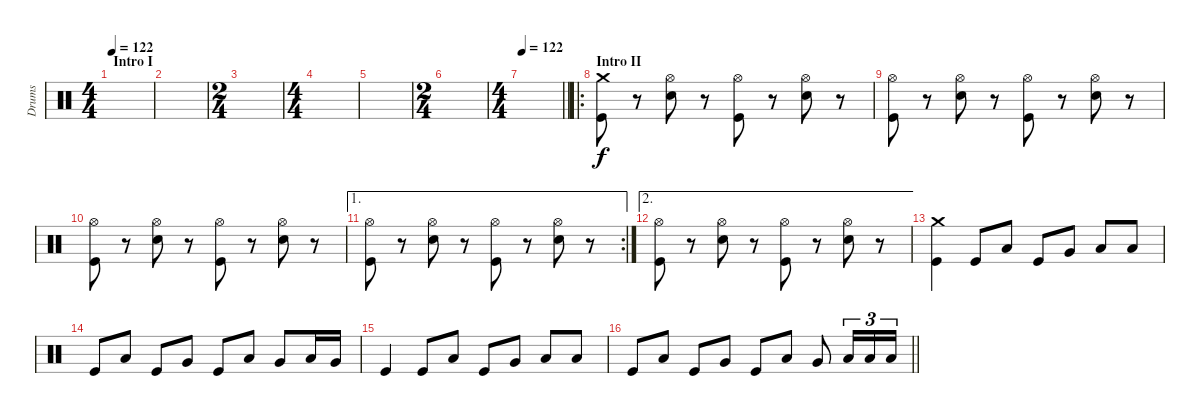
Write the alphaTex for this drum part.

\track ("Drums" "Drums") {instrument percussion}
\staff {score}
\articulation defaults
\ts (4 4)
\section ("" "Intro I")
\tempo 122
\tempo 90
\tempo 122
\clef neutral
\ks c
|
|
\ts (2 4)
|
\ts (4 4)
|
|
\ts (2 4)
|
\ts (4 4)
\tempo 122
\barLineRight lightlight
|
\ro
\section ("" "Intro II")
("Crash medium (hit)" "Kick (hit)").8 r.8 ("Hi-Hat (open)" "Electric Snare (hit)").8 r.8 ("Hi-Hat (open)" "Kick (hit)").8 r.8 ("Hi-Hat (open)" "Electric Snare (hit)").8 r.8 |
("Hi-Hat (open)" "Kick (hit)").8 r.8 ("Hi-Hat (open)" "Electric Snare (hit)").8 r.8 ("Hi-Hat (open)" "Kick (hit)").8 r.8 ("Hi-Hat (open)" "Electric Snare (hit)").8 r.8 |
("Hi-Hat (open)" "Kick (hit)").8 r.8 ("Hi-Hat (open)" "Electric Snare (hit)").8 r.8 ("Hi-Hat (open)" "Kick (hit)").8 r.8 ("Hi-Hat (open)" "Electric Snare (hit)").8 r.8 |
\ae 1
\rc 2
("Hi-Hat (open)" "Kick (hit)").8 r.8 ("Hi-Hat (open)" "Electric Snare (hit)").8 r.8 ("Hi-Hat (open)" "Kick (hit)").8 r.8 ("Hi-Hat (open)" "Electric Snare (hit)").8 r.8 |
\ae 2
("Hi-Hat (open)" "Kick (hit)").8 r.8 ("Hi-Hat (open)" "Electric Snare (hit)").8 r.8 ("Hi-Hat (open)" "Kick (hit)").8 r.8 ("Hi-Hat (open)" "Electric Snare (hit)").8 r.8 |
("Crash medium (hit)" "Kick (hit)").4 "Kick (hit)".8 "Low Tom (hit)".8 "Kick (hit)".8 "Very Low Tom (hit)".8 "Low Floor Tom (hit)".8 "Low Tom (hit)".8 |
"Kick (hit)".8 "Low Tom (hit)".8 "Kick (hit)".8 "Very Low Tom (hit)".8 "Kick (hit)".8 "Low Floor Tom (hit)".8 "Very Low Tom (hit)".8 "Low Tom (hit)".16 "Very Low Tom (hit)".16 |
"Kick (hit)".4 "Kick (hit)".8 "Low Tom (hit)".8 "Kick (hit)".8 "Very Low Tom (hit)".8 "Low Floor Tom (hit)".8 "Low Tom (hit)".8 |
\barLineRight lightlight "Kick (hit)".8 "Low Tom (hit)".8 "Kick (hit)".8 "Very Low Tom (hit)".8 "Kick (hit)".8 "Low Floor Tom (hit)".8 "Very Low Tom (hit)".8 "Low Tom (hit)".16{tu (3 2)} "Low Tom (hit)".16{tu (3 2)} "Low Tom (hit)".16{tu (3 2)}
